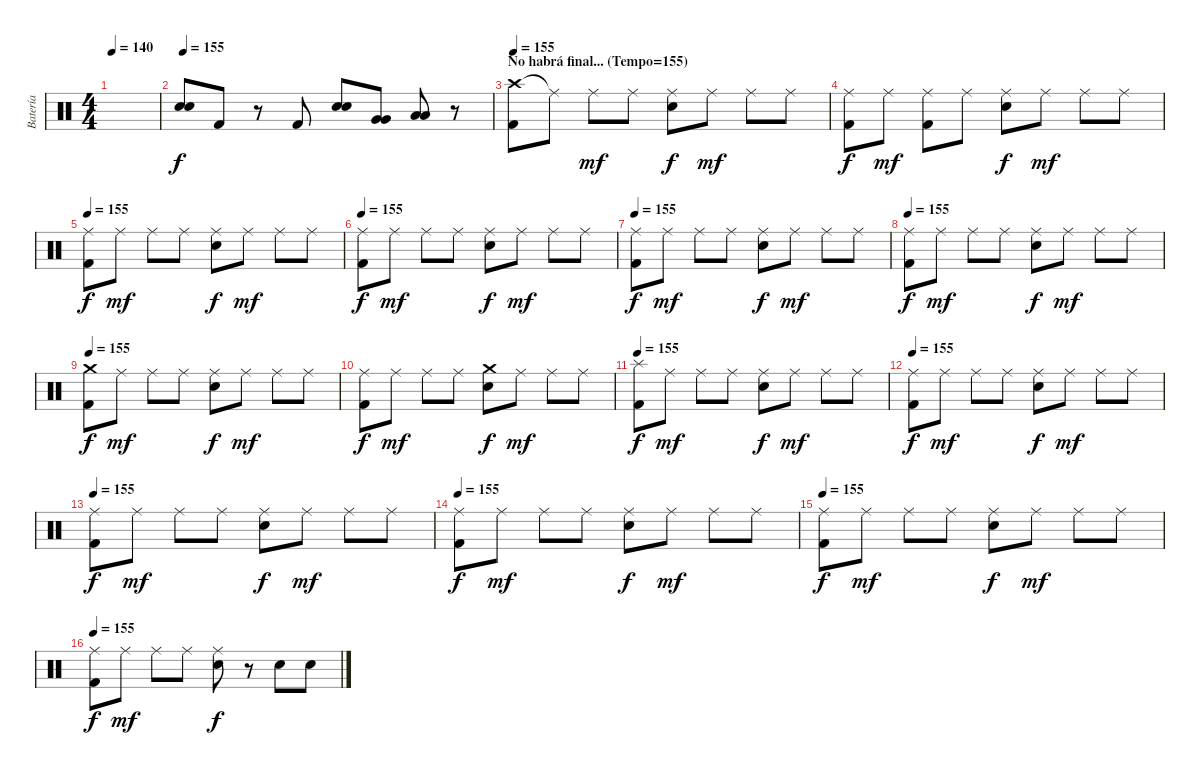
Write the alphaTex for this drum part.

\track ("Batería" "Batería") {instrument percussion}
\staff {score}
\articulation defaults
\ts (4 4)
\tempo 140
\clef neutral
\ks c
|
\tempo 155
("Snare (hit) 2" "Snare (hit) 2").8{dy f} "Kick (hit) 2".8 r.8 "Kick (hit) 2".8 ("Snare (hit) 2" "Snare (hit) 2").8 ("Very Low Tom (hit)" "Very Low Tom (hit)").8 ("Low Floor Tom (hit)" "Low Floor Tom (hit)").8 r.8 |
\section ("" "No habrá final... (Tempo=155)")
\tempo 155
("Crash high (hit)" "Kick (hit) 2").8 "Ride (middle)"{t}.8 "Ride (middle)".8{dy mf} "Ride (middle)".8 ("Ride (middle)" "Snare (hit) 2").8{dy f} "Ride (middle)".8{dy mf} "Ride (middle)".8 "Ride (middle)".8 |
("Ride (middle)" "Kick (hit) 2").8{dy f} "Ride (middle)".8{dy mf} ("Ride (middle)" "Kick (hit) 2").8 "Ride (middle)".8 ("Ride (middle)" "Snare (hit) 2").8{dy f} "Ride (middle)".8{dy mf} "Ride (middle)".8 "Ride (middle)".8 |
\tempo 155
("Ride (middle)" "Kick (hit) 2").8{dy f} "Ride (middle)".8{dy mf} "Ride (middle)".8 "Ride (middle)".8 ("Ride (middle)" "Snare (hit) 2").8{dy f} "Ride (middle)".8{dy mf} "Ride (middle)".8 "Ride (middle)".8 |
\tempo 155
("Ride (middle)" "Kick (hit) 2").8{dy f} "Ride (middle)".8{dy mf} "Ride (middle)".8 "Ride (middle)".8 ("Ride (middle)" "Snare (hit) 2").8{dy f} "Ride (middle)".8{dy mf} "Ride (middle)".8 "Ride (middle)".8 |
\tempo 155
("Ride (middle)" "Kick (hit) 2").8{dy f} "Ride (middle)".8{dy mf} "Ride (middle)".8 "Ride (middle)".8 ("Ride (middle)" "Snare (hit) 2").8{dy f} "Ride (middle)".8{dy mf} "Ride (middle)".8 "Ride (middle)".8 |
\tempo 155
("Ride (middle)" "Kick (hit) 2").8{dy f} "Ride (middle)".8{dy mf} "Ride (middle)".8 "Ride (middle)".8 ("Ride (middle)" "Snare (hit) 2").8{dy f} "Ride (middle)".8{dy mf} "Ride (middle)".8 "Ride (middle)".8 |
\tempo 155
("Crash medium (hit)" "Kick (hit) 2").8{dy f} "Ride (middle)".8{dy mf} "Ride (middle)".8 "Ride (middle)".8 ("Ride (middle)" "Snare (hit) 2").8{dy f} "Ride (middle)".8{dy mf} "Ride (middle)".8 "Ride (middle)".8 |
("Ride (middle)" "Kick (hit) 2").8{dy f} "Ride (middle)".8{dy mf} "Ride (middle)".8 "Ride (middle)".8 ("Crash medium (hit)" "Snare (hit) 2").8{dy f} "Ride (middle)".8{dy mf} "Ride (middle)".8 "Ride (middle)".8 |
\tempo 155
("Splash (hit)" "Kick (hit) 2").8{dy f} "Ride (middle)".8{dy mf} "Ride (middle)".8 "Ride (middle)".8 ("Ride (middle)" "Snare (hit) 2").8{dy f} "Ride (middle)".8{dy mf} "Ride (middle)".8 "Ride (middle)".8 |
\tempo 155
("Ride (middle)" "Kick (hit) 2").8{dy f} "Ride (middle)".8{dy mf} "Ride (middle)".8 "Ride (middle)".8 ("Ride (middle)" "Snare (hit) 2").8{dy f} "Ride (middle)".8{dy mf} "Ride (middle)".8 "Ride (middle)".8 |
\tempo 155
("Ride (middle)" "Kick (hit) 2").8{dy f} "Ride (middle)".8{dy mf} "Ride (middle)".8 "Ride (middle)".8 ("Ride (middle)" "Snare (hit) 2").8{dy f} "Ride (middle)".8{dy mf} "Ride (middle)".8 "Ride (middle)".8 |
\tempo 155
("Ride (middle)" "Kick (hit) 2").8{dy f} "Ride (middle)".8{dy mf} "Ride (middle)".8 "Ride (middle)".8 ("Ride (middle)" "Snare (hit) 2").8{dy f} "Ride (middle)".8{dy mf} "Ride (middle)".8 "Ride (middle)".8 |
\tempo 155
("Ride (middle)" "Kick (hit) 2").8{dy f} "Ride (middle)".8{dy mf} "Ride (middle)".8 "Ride (middle)".8 ("Ride (middle)" "Snare (hit) 2").8{dy f} "Ride (middle)".8{dy mf} "Ride (middle)".8 "Ride (middle)".8 |
\tempo 155
("Ride (middle)" "Kick (hit) 2").8{dy f} "Ride (middle)".8{dy mf} "Ride (middle)".8 "Ride (middle)".8 ("Ride (middle)" "Snare (hit) 2").8{dy f} r.8 "Snare (hit) 2".8 "Snare (hit) 2".8
